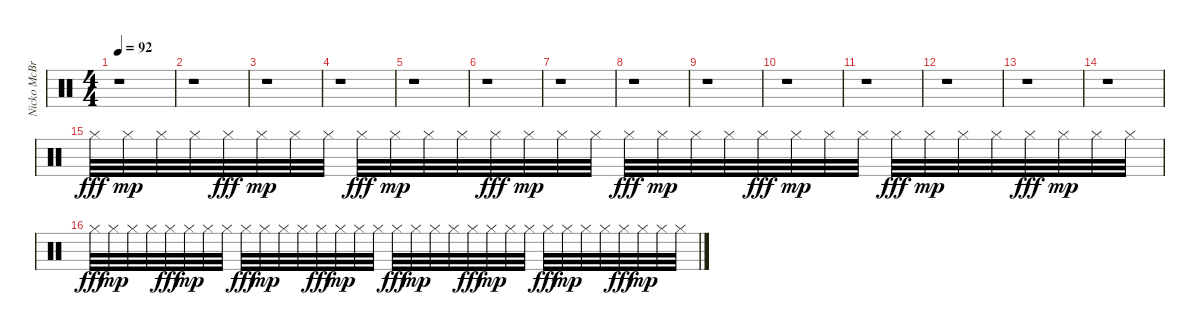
\track ("Nicko McBrain" "Nicko McBr") {instrument percussion}
\staff {score}
\articulation defaults
\ts (4 4)
\tempo 92
\tempo 88
\tempo 92
\clef neutral
\ks c
r.1{dy fff} |
r.1 |
r.1 |
r.1 |
r.1 |
r.1 |
r.1 |
r.1 |
r.1 |
r.1 |
r.1 |
r.1 |
r.1 |
r.1 |
"Hi-Hat (closed)".32 "Hi-Hat (closed)".32{dy mp} "Hi-Hat (closed)".32 "Hi-Hat (closed)".32 "Hi-Hat (closed)".32{dy fff} "Hi-Hat (closed)".32{dy mp} "Hi-Hat (closed)".32 "Hi-Hat (closed)".32 "Hi-Hat (closed)".32{dy fff} "Hi-Hat (closed)".32{dy mp} "Hi-Hat (closed)".32 "Hi-Hat (closed)".32 "Hi-Hat (closed)".32{dy fff} "Hi-Hat (closed)".32{dy mp} "Hi-Hat (closed)".32 "Hi-Hat (closed)".32 "Hi-Hat (closed)".32{dy fff} "Hi-Hat (closed)".32{dy mp} "Hi-Hat (closed)".32 "Hi-Hat (closed)".32 "Hi-Hat (closed)".32{dy fff} "Hi-Hat (closed)".32{dy mp} "Hi-Hat (closed)".32 "Hi-Hat (closed)".32 "Hi-Hat (closed)".32{dy fff} "Hi-Hat (closed)".32{dy mp} "Hi-Hat (closed)".32 "Hi-Hat (closed)".32 "Hi-Hat (closed)".32{dy fff} "Hi-Hat (closed)".32{dy mp} "Hi-Hat (closed)".32 "Hi-Hat (closed)".32 |
"Hi-Hat (closed)".32{dy fff} "Hi-Hat (closed)".32{dy mp} "Hi-Hat (closed)".32 "Hi-Hat (closed)".32 "Hi-Hat (closed)".32{dy fff} "Hi-Hat (closed)".32{dy mp} "Hi-Hat (closed)".32 "Hi-Hat (closed)".32 "Hi-Hat (closed)".32{dy fff} "Hi-Hat (closed)".32{dy mp} "Hi-Hat (closed)".32 "Hi-Hat (closed)".32 "Hi-Hat (closed)".32{dy fff} "Hi-Hat (closed)".32{dy mp} "Hi-Hat (closed)".32 "Hi-Hat (closed)".32 "Hi-Hat (closed)".32{dy fff} "Hi-Hat (closed)".32{dy mp} "Hi-Hat (closed)".32 "Hi-Hat (closed)".32 "Hi-Hat (closed)".32{dy fff} "Hi-Hat (closed)".32{dy mp} "Hi-Hat (closed)".32 "Hi-Hat (closed)".32 "Hi-Hat (closed)".32{dy fff} "Hi-Hat (closed)".32{dy mp} "Hi-Hat (closed)".32 "Hi-Hat (closed)".32 "Hi-Hat (closed)".32{dy fff} "Hi-Hat (closed)".32{dy mp} "Hi-Hat (closed)".32 "Hi-Hat (closed)".32
